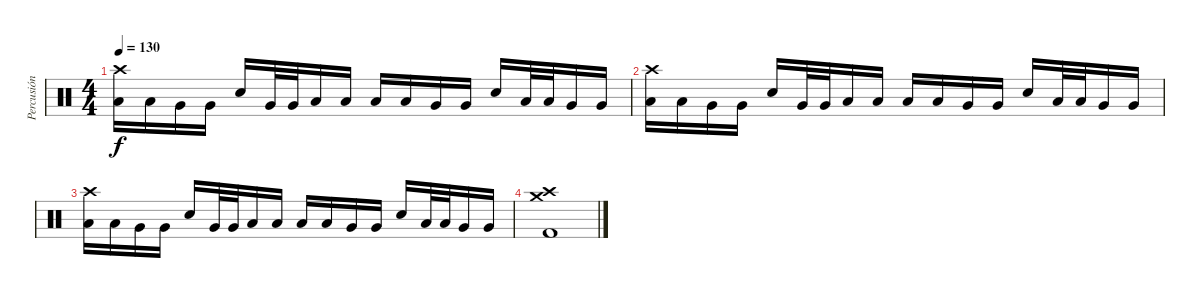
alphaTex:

\track ("Percusión" "Percusión") {instrument percussion}
\staff {score}
\articulation defaults
\ts (4 4)
\tempo 130
\clef neutral
\ks c
("Low Tom (hit)" "Crash high (hit)").16{dy f} "Low Tom (hit)".16 "Very Low Tom (hit)".16 "Very Low Tom (hit)".16 "Electric Snare (hit)".16 "Very Low Tom (hit)".32 "Very Low Tom (hit)".32 "Low Floor Tom (hit)".16 "Low Floor Tom (hit)".16 "Low Tom (hit)".16 "Low Tom (hit)".16 "Very Low Tom (hit)".16 "Very Low Tom (hit)".16 "Electric Snare (hit)".16 "Low Tom (hit)".32 "Low Tom (hit)".32 "Very Low Tom (hit)".16 "Very Low Tom (hit)".16 |
("Low Tom (hit)" "Crash high (hit)").16 "Low Tom (hit)".16 "Very Low Tom (hit)".16 "Very Low Tom (hit)".16 "Electric Snare (hit)".16 "Very Low Tom (hit)".32 "Very Low Tom (hit)".32 "Low Floor Tom (hit)".16 "Low Floor Tom (hit)".16 "Low Tom (hit)".16 "Low Tom (hit)".16 "Very Low Tom (hit)".16 "Very Low Tom (hit)".16 "Electric Snare (hit)".16 "Low Tom (hit)".32 "Low Tom (hit)".32 "Very Low Tom (hit)".16 "Very Low Tom (hit)".16 |
("Low Tom (hit)" "Crash high (hit)").16 "Low Tom (hit)".16 "Very Low Tom (hit)".16 "Very Low Tom (hit)".16 "Electric Snare (hit)".16 "Very Low Tom (hit)".32 "Very Low Tom (hit)".32 "Low Floor Tom (hit)".16 "Low Floor Tom (hit)".16 "Low Tom (hit)".16 "Low Tom (hit)".16 "Very Low Tom (hit)".16 "Very Low Tom (hit)".16 "Electric Snare (hit)".16 "Low Tom (hit)".32 "Low Tom (hit)".32 "Very Low Tom (hit)".16 "Very Low Tom (hit)".16 |
("Crash high (hit)" "Crash medium (hit)" "Kick (hit) 2").1
